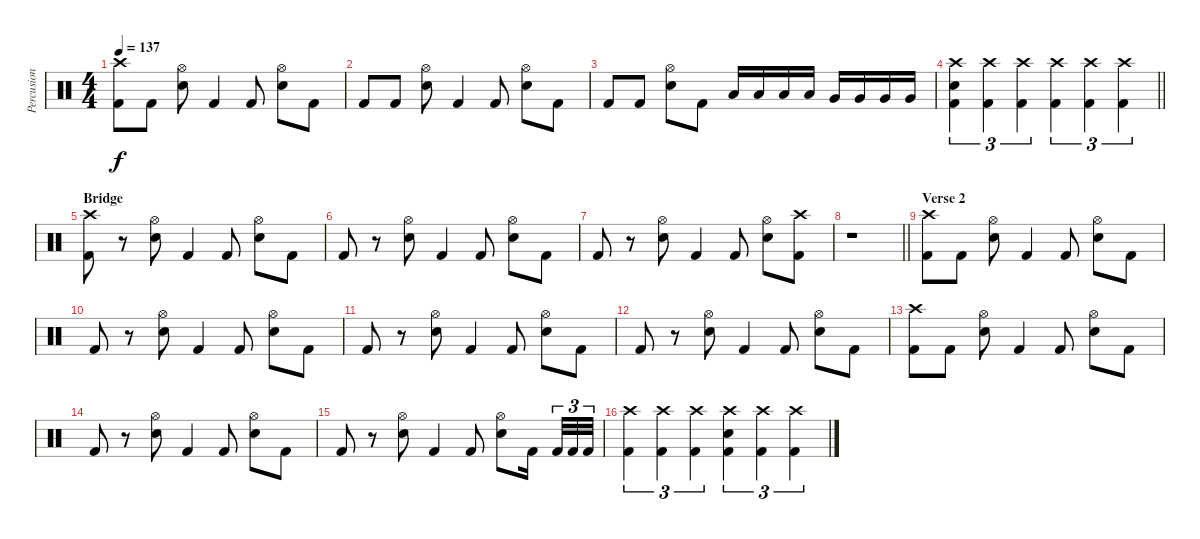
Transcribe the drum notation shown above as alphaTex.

\track ("Percusion" "Percusion") {instrument percussion}
\staff {score}
\articulation defaults
\ts (4 4)
\tempo 137
\clef neutral
\ks c
("Crash high (hit)" "Kick (hit) 2").8{dy f} "Kick (hit) 2".8 ("Hi-Hat (open)" "Snare (hit) 2").8 "Kick (hit) 2".4 "Kick (hit) 2".8 ("Hi-Hat (open)" "Snare (hit) 2").8 "Kick (hit) 2".8 |
"Kick (hit) 2".8 "Kick (hit) 2".8 ("Hi-Hat (open)" "Snare (hit) 2").8 "Kick (hit) 2".4 "Kick (hit) 2".8 ("Hi-Hat (open)" "Snare (hit) 2").8 "Kick (hit) 2".8 |
"Kick (hit) 2".8 "Kick (hit) 2".8 ("Hi-Hat (open)" "Snare (hit) 2").8 "Kick (hit) 2".8 "Low Tom (hit)".16 "Low Tom (hit)".16 "Low Tom (hit)".16 "Low Tom (hit)".16 "Very Low Tom (hit)".16 "Very Low Tom (hit)".16 "Very Low Tom (hit)".16 "Very Low Tom (hit)".16 |
\barLineRight lightlight
("Crash high (hit)" "Snare (hit) 2" "Kick (hit) 2").4{tu (3 2)} ("Crash high (hit)" "Kick (hit) 2").4{tu (3 2)} ("Crash high (hit)" "Kick (hit) 2").4{tu (3 2)} ("Crash high (hit)" "Kick (hit) 2").4{tu (3 2)} ("Crash high (hit)" "Kick (hit) 2").4{tu (3 2)} ("Crash high (hit)" "Kick (hit) 2").4{tu (3 2)} |
\section ("" "Bridge")
("Crash high (hit)" "Kick (hit) 2").8 r.8 ("Hi-Hat (open)" "Snare (hit) 2").8 "Kick (hit) 2".4 "Kick (hit) 2".8 ("Hi-Hat (open)" "Snare (hit) 2").8 "Kick (hit) 2".8 |
"Kick (hit) 2".8 r.8 ("Hi-Hat (open)" "Snare (hit) 2").8 "Kick (hit) 2".4 "Kick (hit) 2".8 ("Hi-Hat (open)" "Snare (hit) 2").8 "Kick (hit) 2".8 |
"Kick (hit) 2".8 r.8 ("Hi-Hat (open)" "Snare (hit) 2").8 "Kick (hit) 2".4 "Kick (hit) 2".8 ("Hi-Hat (open)" "Snare (hit) 2").8 ("Crash high (hit)" "Kick (hit) 2").8 |
\barLineRight lightlight
r.1 |
\section ("" "Verse 2")
("Crash high (hit)" "Kick (hit) 2").8 "Kick (hit) 2".8 ("Hi-Hat (open)" "Snare (hit) 2").8 "Kick (hit) 2".4 "Kick (hit) 2".8 ("Hi-Hat (open)" "Snare (hit) 2").8 "Kick (hit) 2".8 |
"Kick (hit) 2".8 r.8 ("Hi-Hat (open)" "Snare (hit) 2").8 "Kick (hit) 2".4 "Kick (hit) 2".8 ("Hi-Hat (open)" "Snare (hit) 2").8 "Kick (hit) 2".8 |
"Kick (hit) 2".8 r.8 ("Hi-Hat (open)" "Snare (hit) 2").8 "Kick (hit) 2".4 "Kick (hit) 2".8 ("Hi-Hat (open)" "Snare (hit) 2").8 "Kick (hit) 2".8 |
"Kick (hit) 2".8 r.8 ("Hi-Hat (open)" "Snare (hit) 2").8 "Kick (hit) 2".4 "Kick (hit) 2".8 ("Hi-Hat (open)" "Snare (hit) 2").8 "Kick (hit) 2".8 |
("Crash high (hit)" "Kick (hit) 2").8 "Kick (hit) 2".8 ("Hi-Hat (open)" "Snare (hit) 2").8 "Kick (hit) 2".4 "Kick (hit) 2".8 ("Hi-Hat (open)" "Snare (hit) 2").8 "Kick (hit) 2".8 |
"Kick (hit) 2".8 r.8 ("Hi-Hat (open)" "Snare (hit) 2").8 "Kick (hit) 2".4 "Kick (hit) 2".8 ("Hi-Hat (open)" "Snare (hit) 2").8 "Kick (hit) 2".8 |
"Kick (hit) 2".8 r.8 ("Hi-Hat (open)" "Snare (hit) 2").8 "Kick (hit) 2".4 "Kick (hit) 2".8 ("Hi-Hat (open)" "Snare (hit) 2").8 "Kick (hit) 2".16{beam splitsecondary} "Kick (hit) 2".32{tu (3 2)} "Kick (hit) 2".32{tu (3 2)} "Kick (hit) 2".32{tu (3 2)} |
("Crash high (hit)" "Kick (hit) 2").4{tu (3 2)} ("Crash high (hit)" "Kick (hit) 2").4{tu (3 2)} ("Crash high (hit)" "Kick (hit) 2").4{tu (3 2)} ("Crash high (hit)" "Snare (hit) 2" "Kick (hit) 2").4{tu (3 2)} ("Crash high (hit)" "Kick (hit) 2").4{tu (3 2)} ("Crash high (hit)" "Kick (hit) 2").4{tu (3 2)}
